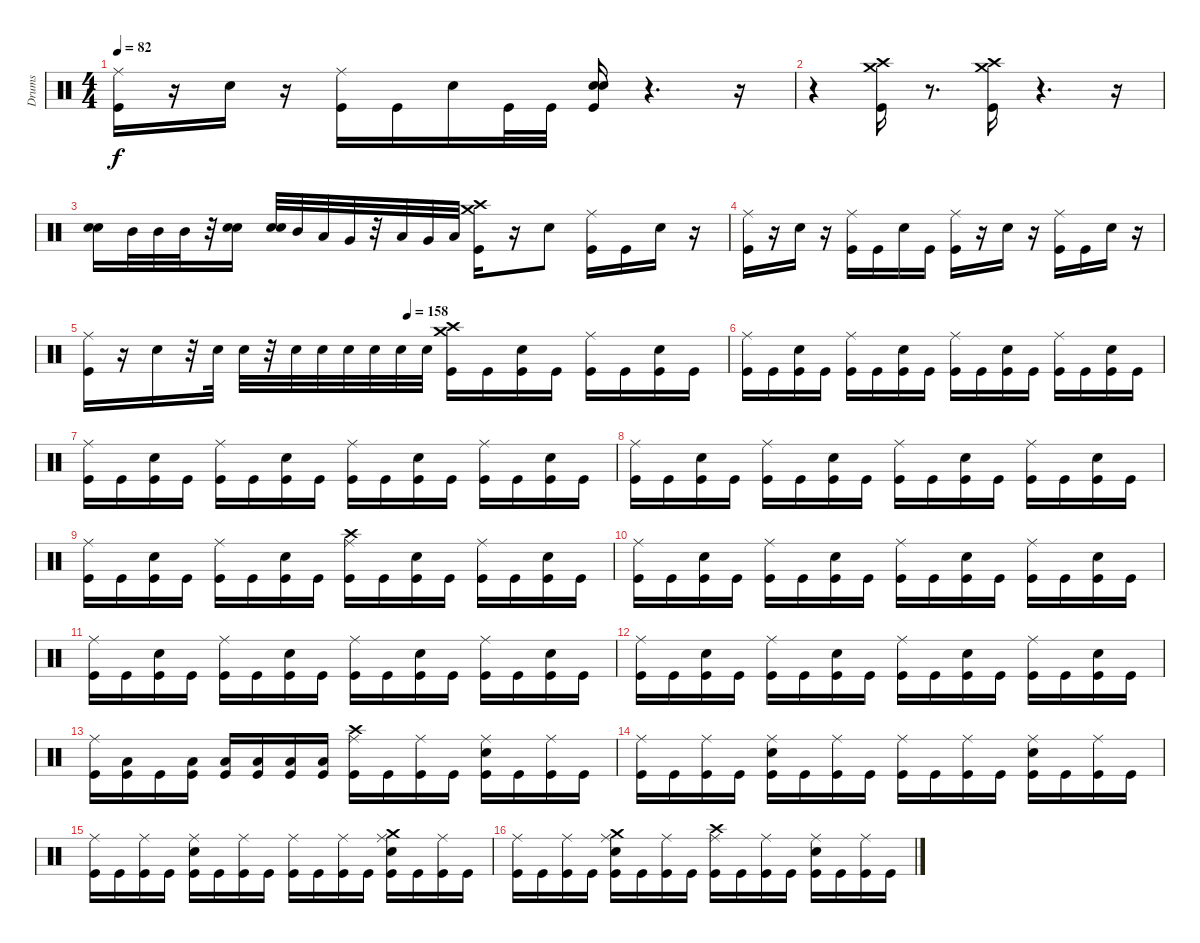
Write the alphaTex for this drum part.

\track ("Drums" "Drums") {instrument percussion}
\staff {score}
\articulation defaults
\ts (4 4)
\tempo 82
\clef neutral
\ks c
("Kick (hit)" "Ride (middle)").16{dy f} r.16 "Electric Snare (hit)".16 r.16 ("Ride (middle)" "Kick (hit)").16 "Kick (hit)".16 "Electric Snare (hit)".16 "Kick (hit)".32 "Kick (hit)".32 ("Electric Snare (hit)" "Electric Snare (hit)" "Kick (hit)").16 r.4{d} r.16 |
r.4 ("Crash medium (hit)" "Crash high (hit)" "Kick (hit)").16 r.8{d} ("Crash high (hit)" "Crash medium (hit)" "Kick (hit)").16 r.4{d} r.16 |
("Electric Snare (hit)" "Electric Snare (hit)").16 "Mid Tom (hit)".32 "Mid Tom (hit)".32 "Mid Tom (hit)".32 r.32 ("Electric Snare (hit)" "Snare (hit) 2").16 ("Electric Snare (hit)" "Electric Snare (hit)").32 "Mid Tom (hit)".32 "Low Tom (hit)".32 "Very Low Tom (hit)".32 r.32 "Low Tom (hit)".32 "Very Low Tom (hit)".32 "Low Floor Tom (hit)".32 ("Crash medium (hit)" "Crash high (hit)" "Kick (hit)").16 r.16 "Electric Snare (hit)".8 ("Ride (middle)" "Kick (hit)").16 "Kick (hit)".16 "Electric Snare (hit)".16 r.16 |
("Ride (middle)" "Kick (hit)").16 r.16 "Electric Snare (hit)".16 r.16 ("Kick (hit)" "Ride (middle)").16 "Kick (hit)".16 "Electric Snare (hit)".16 "Kick (hit)".16 ("Ride (middle)" "Kick (hit)").16 r.16 "Electric Snare (hit)".16 r.16 ("Ride (middle)" "Kick (hit)").16 "Kick (hit)".16 "Electric Snare (hit)".16 r.16 |
\tempo (158 0.5)
("Kick (hit)" "Ride (middle)").16 r.16 "Electric Snare (hit)".16 r.32 "Electric Snare (hit)".32 "Electric Snare (hit)".32 r.32 "Electric Snare (hit)".32 "Electric Snare (hit)".32 "Electric Snare (hit)".32 "Electric Snare (hit)".32 "Electric Snare (hit)".32 "Electric Snare (hit)".32 ("Crash medium (hit)" "Crash high (hit)" "Kick (hit)").16 "Kick (hit)".16 ("Electric Snare (hit)" "Kick (hit)").16 "Kick (hit)".16 ("Ride (middle)" "Kick (hit)").16 "Kick (hit)".16 ("Electric Snare (hit)" "Kick (hit)").16 "Kick (hit)".16 |
("Ride (middle)" "Kick (hit)").16 "Kick (hit)".16 ("Electric Snare (hit)" "Kick (hit)").16 "Kick (hit)".16 ("Ride (middle)" "Kick (hit)").16 "Kick (hit)".16 ("Electric Snare (hit)" "Kick (hit)").16 "Kick (hit)".16 ("Ride (middle)" "Kick (hit)").16 "Kick (hit)".16 ("Electric Snare (hit)" "Kick (hit)").16 "Kick (hit)".16 ("Ride (middle)" "Kick (hit)").16 "Kick (hit)".16 ("Electric Snare (hit)" "Kick (hit)").16 "Kick (hit)".16 |
("Ride (middle)" "Kick (hit)").16 "Kick (hit)".16 ("Electric Snare (hit)" "Kick (hit)").16 "Kick (hit)".16 ("Ride (middle)" "Kick (hit)").16 "Kick (hit)".16 ("Electric Snare (hit)" "Kick (hit)").16 "Kick (hit)".16 ("Ride (middle)" "Kick (hit)").16 "Kick (hit)".16 ("Electric Snare (hit)" "Kick (hit)").16 "Kick (hit)".16 ("Ride (middle)" "Kick (hit)").16 "Kick (hit)".16 ("Electric Snare (hit)" "Kick (hit)").16 "Kick (hit)".16 |
("Ride (middle)" "Kick (hit)").16 "Kick (hit)".16 ("Electric Snare (hit)" "Kick (hit)").16 "Kick (hit)".16 ("Ride (middle)" "Kick (hit)").16 "Kick (hit)".16 ("Electric Snare (hit)" "Kick (hit)").16 "Kick (hit)".16 ("Ride (middle)" "Kick (hit)").16 "Kick (hit)".16 ("Electric Snare (hit)" "Kick (hit)").16 "Kick (hit)".16 ("Ride (middle)" "Kick (hit)").16 "Kick (hit)".16 ("Electric Snare (hit)" "Kick (hit)").16 "Kick (hit)".16 |
("Ride (middle)" "Kick (hit)").16 "Kick (hit)".16 ("Electric Snare (hit)" "Kick (hit)").16 "Kick (hit)".16 ("Ride (middle)" "Kick (hit)").16 "Kick (hit)".16 ("Electric Snare (hit)" "Kick (hit)").16 "Kick (hit)".16 ("Crash high (hit)" "Ride (middle)" "Kick (hit)").16 "Kick (hit)".16 ("Electric Snare (hit)" "Kick (hit)").16 "Kick (hit)".16 ("Ride (middle)" "Kick (hit)").16 "Kick (hit)".16 ("Electric Snare (hit)" "Kick (hit)").16 "Kick (hit)".16 |
("Ride (middle)" "Kick (hit)").16 "Kick (hit)".16 ("Electric Snare (hit)" "Kick (hit)").16 "Kick (hit)".16 ("Ride (middle)" "Kick (hit)").16 "Kick (hit)".16 ("Electric Snare (hit)" "Kick (hit)").16 "Kick (hit)".16 ("Ride (middle)" "Kick (hit)").16 "Kick (hit)".16 ("Electric Snare (hit)" "Kick (hit)").16 "Kick (hit)".16 ("Ride (middle)" "Kick (hit)").16 "Kick (hit)".16 ("Electric Snare (hit)" "Kick (hit)").16 "Kick (hit)".16 |
("Ride (middle)" "Kick (hit)").16 "Kick (hit)".16 ("Electric Snare (hit)" "Kick (hit)").16 "Kick (hit)".16 ("Ride (middle)" "Kick (hit)").16 "Kick (hit)".16 ("Electric Snare (hit)" "Kick (hit)").16 "Kick (hit)".16 ("Ride (middle)" "Kick (hit)").16 "Kick (hit)".16 ("Electric Snare (hit)" "Kick (hit)").16 "Kick (hit)".16 ("Ride (middle)" "Kick (hit)").16 "Kick (hit)".16 ("Electric Snare (hit)" "Kick (hit)").16 "Kick (hit)".16 |
("Ride (middle)" "Kick (hit)").16 "Kick (hit)".16 ("Electric Snare (hit)" "Kick (hit)").16 "Kick (hit)".16 ("Ride (middle)" "Kick (hit)").16 "Kick (hit)".16 ("Electric Snare (hit)" "Kick (hit)").16 "Kick (hit)".16 ("Ride (middle)" "Kick (hit)").16 "Kick (hit)".16 ("Electric Snare (hit)" "Kick (hit)").16 "Kick (hit)".16 ("Ride (middle)" "Kick (hit)").16 "Kick (hit)".16 ("Electric Snare (hit)" "Kick (hit)").16 "Kick (hit)".16 |
("Ride (middle)" "Kick (hit)").16 ("Low Tom (hit)" "Kick (hit)").16 "Kick (hit)".16 ("Low Tom (hit)" "Kick (hit)").16 ("Low Tom (hit)" "Kick (hit)").16 ("Low Tom (hit)" "Kick (hit)").16 ("Low Tom (hit)" "Kick (hit)").16 ("Low Tom (hit)" "Kick (hit)").16 ("Crash high (hit)" "Ride (middle)" "Kick (hit)").16 "Kick (hit)".16 ("Ride (middle)" "Kick (hit)").16 "Kick (hit)".16 ("Ride (middle)" "Electric Snare (hit)" "Kick (hit)").16 "Kick (hit)".16 ("Ride (middle)" "Kick (hit)").16 "Kick (hit)".16 |
("Ride (middle)" "Kick (hit)").16 "Kick (hit)".16 ("Ride (middle)" "Kick (hit)").16 "Kick (hit)".16 ("Ride (middle)" "Electric Snare (hit)" "Kick (hit)").16 "Kick (hit)".16 ("Ride (middle)" "Kick (hit)").16 "Kick (hit)".16 ("Ride (middle)" "Kick (hit)").16 "Kick (hit)".16 ("Ride (middle)" "Kick (hit)").16 "Kick (hit)".16 ("Ride (middle)" "Electric Snare (hit)" "Kick (hit)").16 "Kick (hit)".16 ("Ride (middle)" "Kick (hit)").16 "Kick (hit)".16 |
("Ride (middle)" "Kick (hit)").16 "Kick (hit)".16 ("Ride (middle)" "Kick (hit)").16 "Kick (hit)".16 ("Ride (middle)" "Electric Snare (hit)" "Kick (hit)").16 "Kick (hit)".16 ("Ride (middle)" "Kick (hit)").16 "Kick (hit)".16 ("Ride (middle)" "Kick (hit)").16 "Kick (hit)".16 ("Ride (middle)" "Kick (hit)").16 "Kick (hit)".16 ("Crash medium (hit)" "Ride (middle)" "Electric Snare (hit)" "Kick (hit)").16 "Kick (hit)".16 ("Ride (middle)" "Kick (hit)").16 "Kick (hit)".16 |
("Ride (middle)" "Kick (hit)").16 "Kick (hit)".16 ("Ride (middle)" "Kick (hit)").16 "Kick (hit)".16 ("Crash medium (hit)" "Ride (middle)" "Electric Snare (hit)" "Kick (hit)").16 "Kick (hit)".16 ("Ride (middle)" "Kick (hit)").16 "Kick (hit)".16 ("Crash high (hit)" "Ride (middle)" "Kick (hit)").16 "Kick (hit)".16 ("Ride (middle)" "Kick (hit)").16 "Kick (hit)".16 ("Ride (middle)" "Electric Snare (hit)" "Kick (hit)").16 "Kick (hit)".16 ("Ride (middle)" "Kick (hit)").16 "Kick (hit)".16
